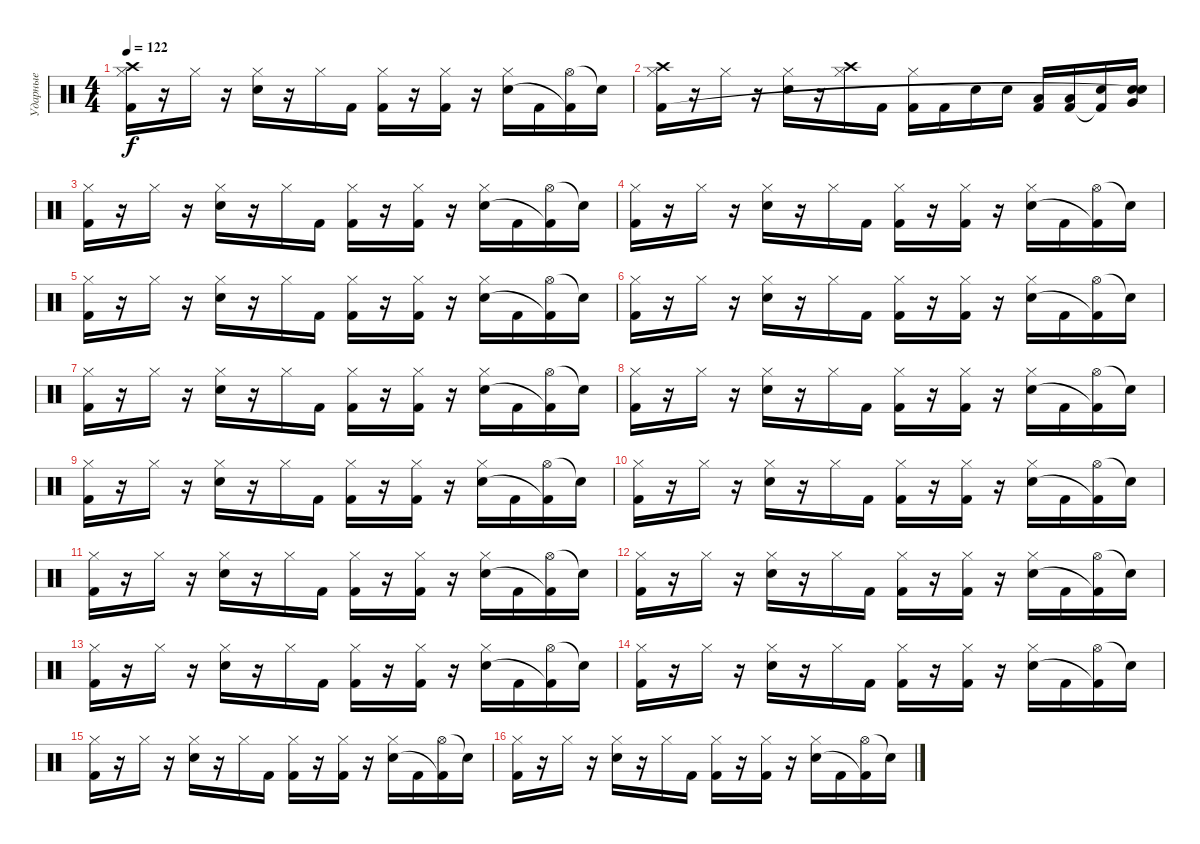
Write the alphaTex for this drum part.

\track ("Ударные" "Ударные") {instrument percussion}
\staff {score}
\articulation defaults
\ts (4 4)
\tempo 122
\clef neutral
\ks c
("Hi-Hat (closed)" "Crash high (hit)" "Kick (hit) 2").16{dy f} r.16 "Hi-Hat (closed)".16 r.16 ("Hi-Hat (closed)" "Snare (hit) 2").16 r.16 "Hi-Hat (closed)".16 "Kick (hit) 2".16 ("Hi-Hat (closed)" "Kick (hit) 2").16 r.16 ("Hi-Hat (closed)" "Kick (hit) 2").16 r.16 ("Hi-Hat (closed)" "Snare (hit) 2").16 "Kick (hit) 2".16 ("Hi-Hat (open)" "Kick (hit) 2"{t}).16 "Snare (hit)"{t}.16 |
("Hi-Hat (closed)" "Crash high (hit)" "Kick (hit) 2").16 r.16 "Hi-Hat (closed)".16 r.16 ("Hi-Hat (closed)" "Snare (hit) 2").16 r.16 ("Hi-Hat (closed)" "Crash high (hit)").16 "Kick (hit) 2".16 ("Hi-Hat (closed)" "Kick (hit) 2").16 "Kick (hit) 2".16 "Snare (hit) 2".16 "Snare (hit) 2".16 ("Low Floor Tom (hit)" "Kick (hit) 2").16 ("Low Floor Tom (hit)" "Kick (hit) 2").16 ("Snare (hit) 2" "Kick (hit) 2"{t}).16 ("Very Low Tom (hit)" "Snare (hit) 2" "Snare (hit)"{t}).16 |
("Hi-Hat (closed)" "Kick (hit) 2").16 r.16 "Hi-Hat (closed)".16 r.16 ("Hi-Hat (closed)" "Snare (hit) 2").16 r.16 "Hi-Hat (closed)".16 "Kick (hit) 2".16 ("Hi-Hat (closed)" "Kick (hit) 2").16 r.16 ("Hi-Hat (closed)" "Kick (hit) 2").16 r.16 ("Hi-Hat (closed)" "Snare (hit) 2").16 "Kick (hit) 2".16 ("Hi-Hat (open)" "Kick (hit) 2"{t}).16 "Snare (hit)"{t}.16 |
("Hi-Hat (closed)" "Kick (hit) 2").16 r.16 "Hi-Hat (closed)".16 r.16 ("Hi-Hat (closed)" "Snare (hit) 2").16 r.16 "Hi-Hat (closed)".16 "Kick (hit) 2".16 ("Hi-Hat (closed)" "Kick (hit) 2").16 r.16 ("Hi-Hat (closed)" "Kick (hit) 2").16 r.16 ("Hi-Hat (closed)" "Snare (hit) 2").16 "Kick (hit) 2".16 ("Hi-Hat (open)" "Kick (hit) 2"{t}).16 "Snare (hit)"{t}.16 |
("Hi-Hat (closed)" "Kick (hit) 2").16 r.16 "Hi-Hat (closed)".16 r.16 ("Hi-Hat (closed)" "Snare (hit) 2").16 r.16 "Hi-Hat (closed)".16 "Kick (hit) 2".16 ("Hi-Hat (closed)" "Kick (hit) 2").16 r.16 ("Hi-Hat (closed)" "Kick (hit) 2").16 r.16 ("Hi-Hat (closed)" "Snare (hit) 2").16 "Kick (hit) 2".16 ("Hi-Hat (open)" "Kick (hit) 2"{t}).16 "Snare (hit)"{t}.16 |
("Hi-Hat (closed)" "Kick (hit) 2").16 r.16 "Hi-Hat (closed)".16 r.16 ("Hi-Hat (closed)" "Snare (hit) 2").16 r.16 "Hi-Hat (closed)".16 "Kick (hit) 2".16 ("Hi-Hat (closed)" "Kick (hit) 2").16 r.16 ("Hi-Hat (closed)" "Kick (hit) 2").16 r.16 ("Hi-Hat (closed)" "Snare (hit) 2").16 "Kick (hit) 2".16 ("Hi-Hat (open)" "Kick (hit) 2"{t}).16 "Snare (hit)"{t}.16 |
("Hi-Hat (closed)" "Kick (hit) 2").16 r.16 "Hi-Hat (closed)".16 r.16 ("Hi-Hat (closed)" "Snare (hit) 2").16 r.16 "Hi-Hat (closed)".16 "Kick (hit) 2".16 ("Hi-Hat (closed)" "Kick (hit) 2").16 r.16 ("Hi-Hat (closed)" "Kick (hit) 2").16 r.16 ("Hi-Hat (closed)" "Snare (hit) 2").16 "Kick (hit) 2".16 ("Hi-Hat (open)" "Kick (hit) 2"{t}).16 "Snare (hit)"{t}.16 |
("Hi-Hat (closed)" "Kick (hit) 2").16 r.16 "Hi-Hat (closed)".16 r.16 ("Hi-Hat (closed)" "Snare (hit) 2").16 r.16 "Hi-Hat (closed)".16 "Kick (hit) 2".16 ("Hi-Hat (closed)" "Kick (hit) 2").16 r.16 ("Hi-Hat (closed)" "Kick (hit) 2").16 r.16 ("Hi-Hat (closed)" "Snare (hit) 2").16 "Kick (hit) 2".16 ("Hi-Hat (open)" "Kick (hit) 2"{t}).16 "Snare (hit)"{t}.16 |
("Hi-Hat (closed)" "Kick (hit) 2").16 r.16 "Hi-Hat (closed)".16 r.16 ("Hi-Hat (closed)" "Snare (hit) 2").16 r.16 "Hi-Hat (closed)".16 "Kick (hit) 2".16 ("Hi-Hat (closed)" "Kick (hit) 2").16 r.16 ("Hi-Hat (closed)" "Kick (hit) 2").16 r.16 ("Hi-Hat (closed)" "Snare (hit) 2").16 "Kick (hit) 2".16 ("Hi-Hat (open)" "Kick (hit) 2"{t}).16 "Snare (hit)"{t}.16 |
("Hi-Hat (closed)" "Kick (hit) 2").16 r.16 "Hi-Hat (closed)".16 r.16 ("Hi-Hat (closed)" "Snare (hit) 2").16 r.16 "Hi-Hat (closed)".16 "Kick (hit) 2".16 ("Hi-Hat (closed)" "Kick (hit) 2").16 r.16 ("Hi-Hat (closed)" "Kick (hit) 2").16 r.16 ("Hi-Hat (closed)" "Snare (hit) 2").16 "Kick (hit) 2".16 ("Hi-Hat (open)" "Kick (hit) 2"{t}).16 "Snare (hit)"{t}.16 |
("Hi-Hat (closed)" "Kick (hit) 2").16 r.16 "Hi-Hat (closed)".16 r.16 ("Hi-Hat (closed)" "Snare (hit) 2").16 r.16 "Hi-Hat (closed)".16 "Kick (hit) 2".16 ("Hi-Hat (closed)" "Kick (hit) 2").16 r.16 ("Hi-Hat (closed)" "Kick (hit) 2").16 r.16 ("Hi-Hat (closed)" "Snare (hit) 2").16 "Kick (hit) 2".16 ("Hi-Hat (open)" "Kick (hit) 2"{t}).16 "Snare (hit)"{t}.16 |
("Hi-Hat (closed)" "Kick (hit) 2").16 r.16 "Hi-Hat (closed)".16 r.16 ("Hi-Hat (closed)" "Snare (hit) 2").16 r.16 "Hi-Hat (closed)".16 "Kick (hit) 2".16 ("Hi-Hat (closed)" "Kick (hit) 2").16 r.16 ("Hi-Hat (closed)" "Kick (hit) 2").16 r.16 ("Hi-Hat (closed)" "Snare (hit) 2").16 "Kick (hit) 2".16 ("Hi-Hat (open)" "Kick (hit) 2"{t}).16 "Snare (hit)"{t}.16 |
("Hi-Hat (closed)" "Kick (hit) 2").16 r.16 "Hi-Hat (closed)".16 r.16 ("Hi-Hat (closed)" "Snare (hit) 2").16 r.16 "Hi-Hat (closed)".16 "Kick (hit) 2".16 ("Hi-Hat (closed)" "Kick (hit) 2").16 r.16 ("Hi-Hat (closed)" "Kick (hit) 2").16 r.16 ("Hi-Hat (closed)" "Snare (hit) 2").16 "Kick (hit) 2".16 ("Hi-Hat (open)" "Kick (hit) 2"{t}).16 "Snare (hit)"{t}.16 |
("Hi-Hat (closed)" "Kick (hit) 2").16 r.16 "Hi-Hat (closed)".16 r.16 ("Hi-Hat (closed)" "Snare (hit) 2").16 r.16 "Hi-Hat (closed)".16 "Kick (hit) 2".16 ("Hi-Hat (closed)" "Kick (hit) 2").16 r.16 ("Hi-Hat (closed)" "Kick (hit) 2").16 r.16 ("Hi-Hat (closed)" "Snare (hit) 2").16 "Kick (hit) 2".16 ("Hi-Hat (open)" "Kick (hit) 2"{t}).16 "Snare (hit)"{t}.16 |
("Hi-Hat (closed)" "Kick (hit) 2").16 r.16 "Hi-Hat (closed)".16 r.16 ("Hi-Hat (closed)" "Snare (hit) 2").16 r.16 "Hi-Hat (closed)".16 "Kick (hit) 2".16 ("Hi-Hat (closed)" "Kick (hit) 2").16 r.16 ("Hi-Hat (closed)" "Kick (hit) 2").16 r.16 ("Hi-Hat (closed)" "Snare (hit) 2").16 "Kick (hit) 2".16 ("Hi-Hat (open)" "Kick (hit) 2"{t}).16 "Snare (hit)"{t}.16 |
("Hi-Hat (closed)" "Kick (hit) 2").16 r.16 "Hi-Hat (closed)".16 r.16 ("Hi-Hat (closed)" "Snare (hit) 2").16 r.16 "Hi-Hat (closed)".16 "Kick (hit) 2".16 ("Hi-Hat (closed)" "Kick (hit) 2").16 r.16 ("Hi-Hat (closed)" "Kick (hit) 2").16 r.16 ("Hi-Hat (closed)" "Snare (hit) 2").16 "Kick (hit) 2".16 ("Hi-Hat (open)" "Kick (hit) 2"{t}).16 "Snare (hit)"{t}.16
